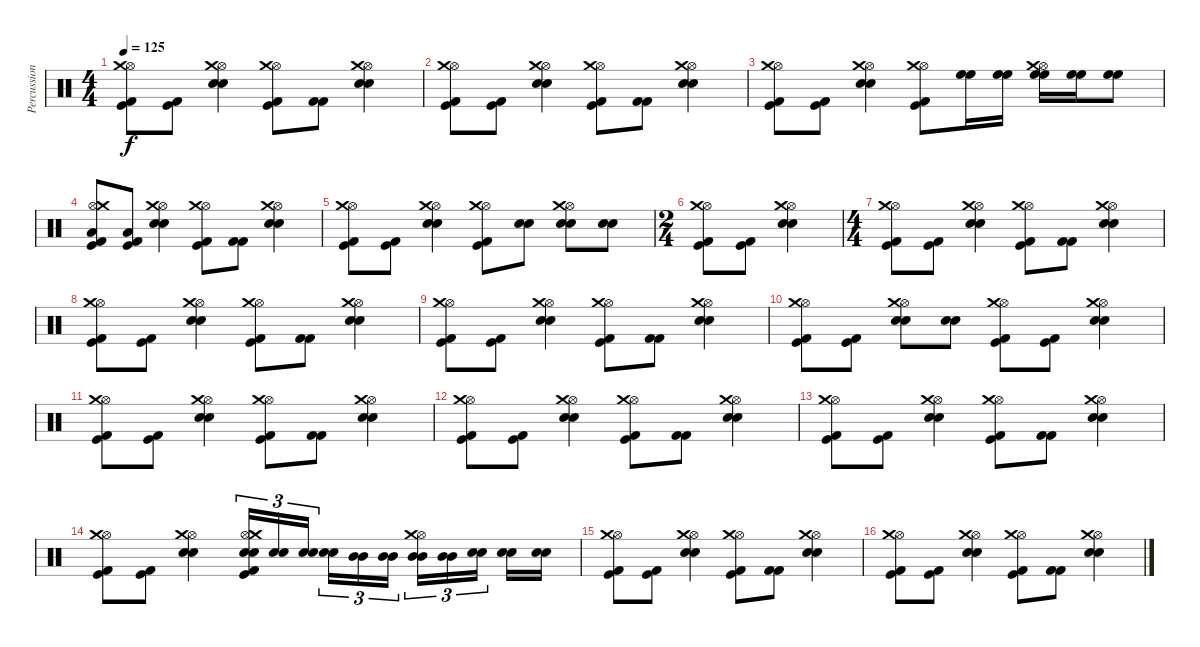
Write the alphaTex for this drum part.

\track ("Percussions" "Percussion") {instrument percussion}
\staff {score}
\articulation defaults
\ts (4 4)
\tempo 125
\clef neutral
\ks c
("Kick (hit)" "Kick (hit) 2" "Hi-Hat (open)" "Crash medium (hit)").8{dy f} ("Kick (hit)" "Kick (hit) 2").8 ("Snare (hit) 2" "Snare (hit) 2" "Hi-Hat (open)" "Crash medium (hit)").4 ("Kick (hit)" "Kick (hit) 2" "Hi-Hat (open)" "Crash medium (hit)").8 ("Kick (hit) 2" "Kick (hit) 2").8 ("Snare (hit) 2" "Snare (hit) 2" "Hi-Hat (open)" "Crash medium (hit)").4 |
("Kick (hit)" "Kick (hit) 2" "Hi-Hat (open)" "Crash medium (hit)").8 ("Kick (hit)" "Kick (hit) 2").8 ("Snare (hit) 2" "Snare (hit) 2" "Hi-Hat (open)" "Crash medium (hit)").4 ("Kick (hit)" "Kick (hit) 2" "Hi-Hat (open)" "Crash medium (hit)").8 ("Kick (hit) 2" "Kick (hit) 2").8 ("Snare (hit) 2" "Snare (hit) 2" "Hi-Hat (open)" "Crash medium (hit)").4 |
("Kick (hit)" "Kick (hit) 2" "Hi-Hat (open)" "Crash medium (hit)").8 ("Kick (hit)" "Kick (hit) 2").8 ("Snare (hit) 2" "Snare (hit) 2" "Hi-Hat (open)" "Crash medium (hit)").4 ("Kick (hit)" "Kick (hit) 2" "Hi-Hat (open)" "Crash medium (hit)").8 ("High Floor Tom (hit)" "High Floor Tom (hit)").16 ("High Floor Tom (hit)" "High Floor Tom (hit)").16 ("High Floor Tom (hit)" "High Floor Tom (hit)" "Hi-Hat (open)" "Crash medium (hit)").16 ("High Floor Tom (hit)" "High Floor Tom (hit)").16 ("High Floor Tom (hit)" "High Floor Tom (hit)").8 |
("Low Floor Tom (hit)" "Kick (hit)" "Kick (hit) 2" "Hi-Hat (open)" "Crash medium (hit)").8 ("Low Floor Tom (hit)" "Kick (hit)" "Kick (hit) 2").8 ("Snare (hit) 2" "Snare (hit) 2" "Hi-Hat (open)" "Crash medium (hit)").4 ("Kick (hit)" "Kick (hit) 2" "Hi-Hat (open)" "Crash medium (hit)").8 ("Kick (hit) 2" "Kick (hit) 2").8 ("Snare (hit) 2" "Snare (hit) 2" "Hi-Hat (open)" "Crash medium (hit)").4 |
("Kick (hit)" "Kick (hit) 2" "Hi-Hat (open)" "Crash medium (hit)").8 ("Kick (hit)" "Kick (hit) 2").8 ("Snare (hit) 2" "Snare (hit) 2" "Hi-Hat (open)" "Crash medium (hit)").4 ("Kick (hit)" "Kick (hit) 2" "Hi-Hat (open)" "Crash medium (hit)").8 ("Snare (hit) 2" "Snare (hit) 2").8 ("Snare (hit) 2" "Snare (hit) 2" "Hi-Hat (open)" "Crash medium (hit)").8 ("Snare (hit) 2" "Snare (hit) 2").8 |
\ts (2 4)
("Kick (hit)" "Kick (hit) 2" "Hi-Hat (open)" "Crash medium (hit)").8 ("Kick (hit)" "Kick (hit) 2").8 ("Snare (hit) 2" "Snare (hit) 2" "Hi-Hat (open)" "Crash medium (hit)").4 |
\ts (4 4)
("Kick (hit)" "Kick (hit) 2" "Hi-Hat (open)" "Crash medium (hit)").8 ("Kick (hit)" "Kick (hit) 2").8 ("Snare (hit) 2" "Snare (hit) 2" "Hi-Hat (open)" "Crash medium (hit)").4 ("Kick (hit)" "Kick (hit) 2" "Hi-Hat (open)" "Crash medium (hit)").8 ("Kick (hit) 2" "Kick (hit) 2").8 ("Snare (hit) 2" "Snare (hit) 2" "Hi-Hat (open)" "Crash medium (hit)").4 |
("Kick (hit)" "Kick (hit) 2" "Hi-Hat (open)" "Crash medium (hit)").8 ("Kick (hit)" "Kick (hit) 2").8 ("Snare (hit) 2" "Snare (hit) 2" "Hi-Hat (open)" "Crash medium (hit)").4 ("Kick (hit)" "Kick (hit) 2" "Hi-Hat (open)" "Crash medium (hit)").8 ("Kick (hit) 2" "Kick (hit) 2").8 ("Snare (hit) 2" "Snare (hit) 2" "Hi-Hat (open)" "Crash medium (hit)").4 |
("Kick (hit)" "Kick (hit) 2" "Hi-Hat (open)" "Crash medium (hit)").8 ("Kick (hit)" "Kick (hit) 2").8 ("Snare (hit) 2" "Snare (hit) 2" "Hi-Hat (open)" "Crash medium (hit)").4 ("Kick (hit)" "Kick (hit) 2" "Hi-Hat (open)" "Crash medium (hit)").8 ("Kick (hit) 2" "Kick (hit) 2").8 ("Snare (hit) 2" "Snare (hit) 2" "Hi-Hat (open)" "Crash medium (hit)").4 |
("Kick (hit)" "Kick (hit) 2" "Hi-Hat (open)" "Crash medium (hit)").8 ("Kick (hit)" "Kick (hit) 2").8 ("Snare (hit) 2" "Snare (hit) 2" "Hi-Hat (open)" "Crash medium (hit)").8 ("Snare (hit) 2" "Snare (hit) 2").8 ("Kick (hit)" "Kick (hit) 2" "Hi-Hat (open)" "Crash medium (hit)").8 ("Kick (hit)" "Kick (hit) 2").8 ("Snare (hit) 2" "Snare (hit) 2" "Hi-Hat (open)" "Crash medium (hit)").4 |
("Kick (hit)" "Kick (hit) 2" "Hi-Hat (open)" "Crash medium (hit)").8 ("Kick (hit)" "Kick (hit) 2").8 ("Snare (hit) 2" "Snare (hit) 2" "Hi-Hat (open)" "Crash medium (hit)").4 ("Kick (hit)" "Kick (hit) 2" "Hi-Hat (open)" "Crash medium (hit)").8 ("Kick (hit) 2" "Kick (hit) 2").8 ("Snare (hit) 2" "Snare (hit) 2" "Hi-Hat (open)" "Crash medium (hit)").4 |
("Kick (hit)" "Kick (hit) 2" "Hi-Hat (open)" "Crash medium (hit)").8 ("Kick (hit)" "Kick (hit) 2").8 ("Snare (hit) 2" "Snare (hit) 2" "Hi-Hat (open)" "Crash medium (hit)").4 ("Kick (hit)" "Kick (hit) 2" "Hi-Hat (open)" "Crash medium (hit)").8 ("Kick (hit) 2" "Kick (hit) 2").8 ("Snare (hit) 2" "Snare (hit) 2" "Hi-Hat (open)" "Crash medium (hit)").4 |
("Kick (hit)" "Kick (hit) 2" "Hi-Hat (open)" "Crash medium (hit)").8 ("Kick (hit)" "Kick (hit) 2").8 ("Snare (hit) 2" "Snare (hit) 2" "Hi-Hat (open)" "Crash medium (hit)").4 ("Kick (hit)" "Kick (hit) 2" "Hi-Hat (open)" "Crash medium (hit)").8 ("Kick (hit) 2" "Kick (hit) 2").8 ("Snare (hit) 2" "Snare (hit) 2" "Hi-Hat (open)" "Crash medium (hit)").4 |
("Kick (hit)" "Kick (hit) 2" "Hi-Hat (open)" "Crash medium (hit)").8 ("Kick (hit)" "Kick (hit) 2").8 ("Snare (hit) 2" "Snare (hit) 2" "Hi-Hat (open)" "Crash medium (hit)").4 ("Snare (hit) 2" "Snare (hit) 2" "Kick (hit)" "Kick (hit) 2" "Hi-Hat (open)" "Crash medium (hit)").16{tu (3 2)} ("Snare (hit) 2" "Snare (hit) 2").16{tu (3 2)} ("Snare (hit) 2" "Snare (hit) 2").16{tu (3 2)} ("Snare (hit) 2" "Snare (hit) 2").16{tu (3 2)} ("Mid Tom (hit)" "Mid Tom (hit)").16{tu (3 2)} ("Mid Tom (hit)" "Mid Tom (hit)").16{tu (3 2)} ("Mid Tom (hit)" "Mid Tom (hit)" "Hi-Hat (open)" "Crash medium (hit)").16{tu (3 2)} ("Mid Tom (hit)" "Mid Tom (hit)").16{tu (3 2)} ("Snare (hit) 2" "Snare (hit) 2").16{tu (3 2)} ("Snare (hit) 2" "Snare (hit) 2").16 ("Snare (hit) 2" "Snare (hit) 2").16 |
("Kick (hit)" "Kick (hit) 2" "Hi-Hat (open)" "Crash medium (hit)").8 ("Kick (hit)" "Kick (hit) 2").8 ("Snare (hit) 2" "Snare (hit) 2" "Hi-Hat (open)" "Crash medium (hit)").4 ("Kick (hit)" "Kick (hit) 2" "Hi-Hat (open)" "Crash medium (hit)").8 ("Kick (hit) 2" "Kick (hit) 2").8 ("Snare (hit) 2" "Snare (hit) 2" "Hi-Hat (open)" "Crash medium (hit)").4 |
("Kick (hit)" "Kick (hit) 2" "Hi-Hat (open)" "Crash medium (hit)").8 ("Kick (hit)" "Kick (hit) 2").8 ("Snare (hit) 2" "Snare (hit) 2" "Hi-Hat (open)" "Crash medium (hit)").4 ("Kick (hit)" "Kick (hit) 2" "Hi-Hat (open)" "Crash medium (hit)").8 ("Kick (hit) 2" "Kick (hit) 2").8 ("Snare (hit) 2" "Snare (hit) 2" "Hi-Hat (open)" "Crash medium (hit)").4
